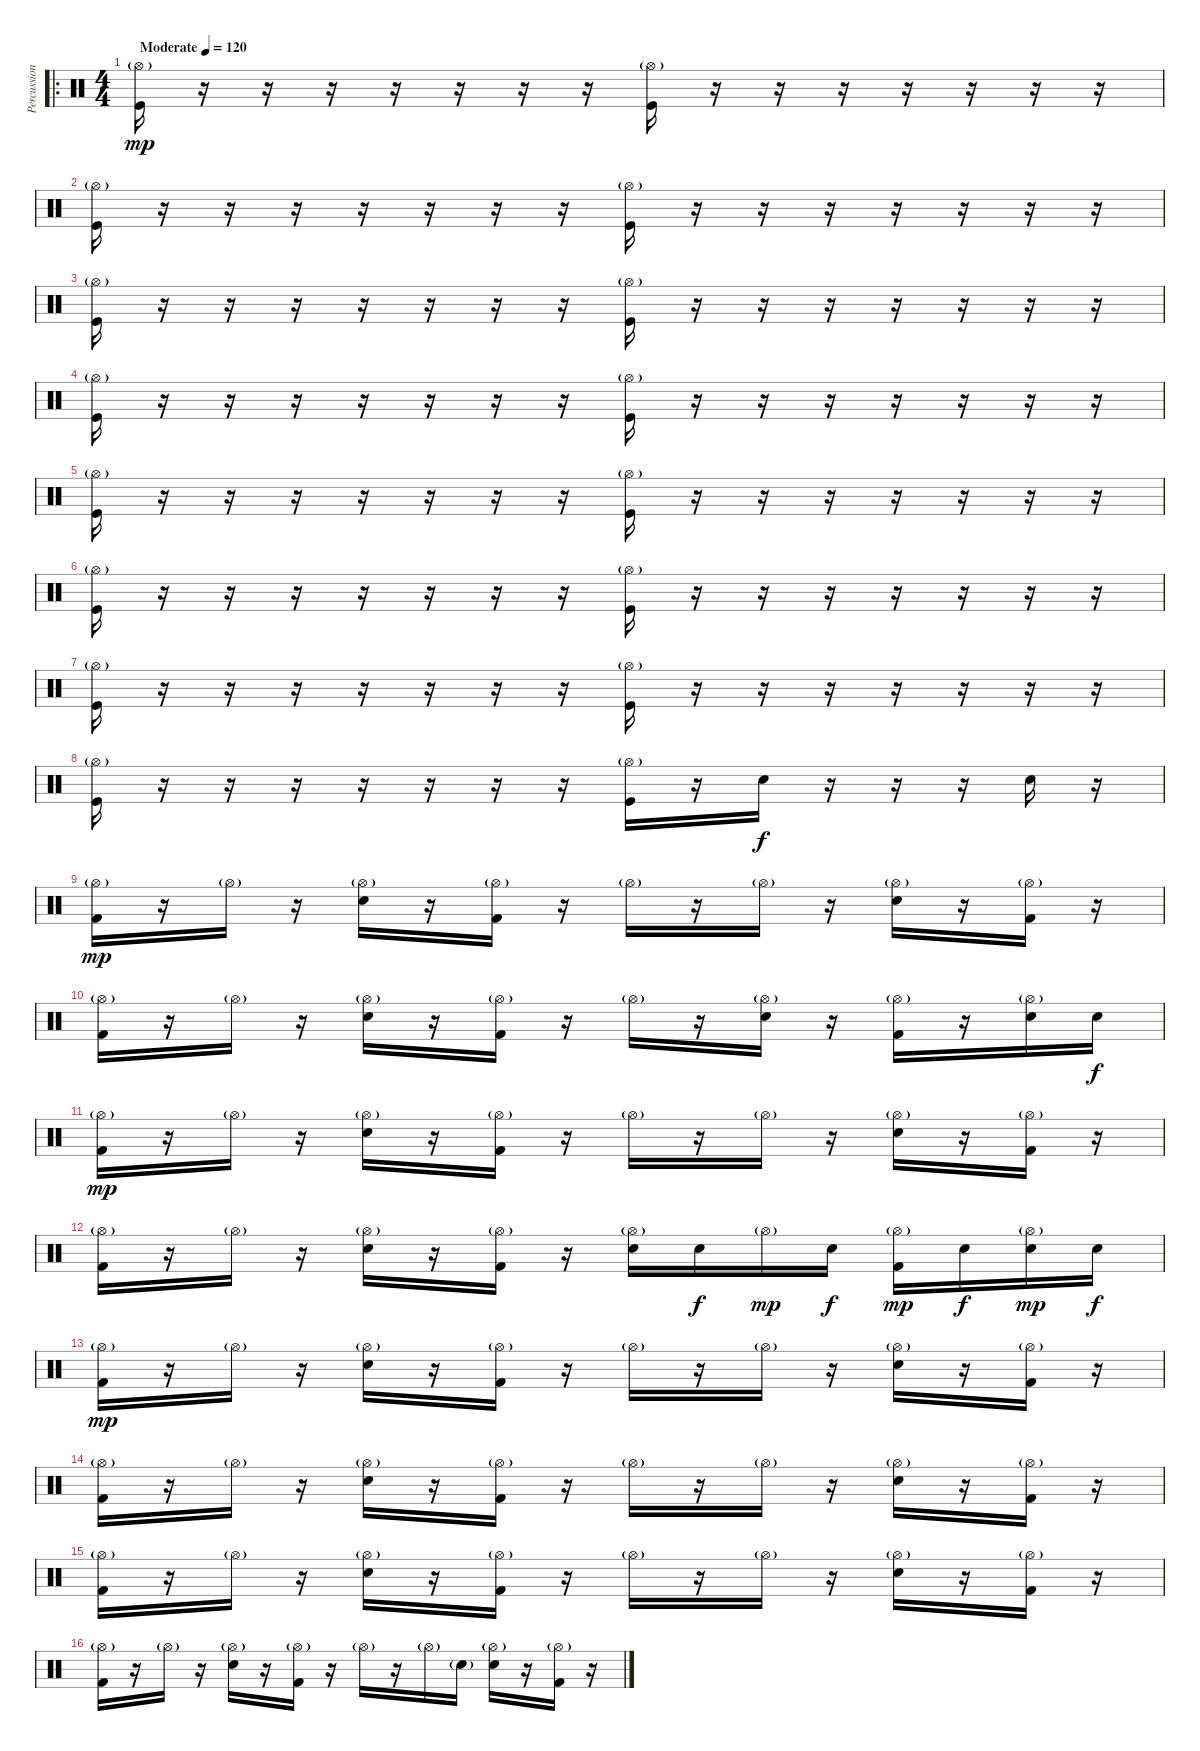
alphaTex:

\track ("Percussion (Drum Kit)" "Percussion") {instrument percussion}
\staff {score}
\articulation defaults
\ro
\ts (4 4)
\tempo (120 "Moderate")
\clef neutral
\ks c
("Hi-Hat (open)"{g} "Kick (hit)").16{dy mp} r.16 r.16 r.16 r.16 r.16 r.16 r.16 ("Hi-Hat (open)"{g} "Kick (hit)").16 r.16 r.16 r.16 r.16 r.16 r.16 r.16 |
("Hi-Hat (open)"{g} "Kick (hit)").16 r.16 r.16 r.16 r.16 r.16 r.16 r.16 ("Hi-Hat (open)"{g} "Kick (hit)").16 r.16 r.16 r.16 r.16 r.16 r.16 r.16 |
("Hi-Hat (open)"{g} "Kick (hit)").16 r.16 r.16 r.16 r.16 r.16 r.16 r.16 ("Hi-Hat (open)"{g} "Kick (hit)").16 r.16 r.16 r.16 r.16 r.16 r.16 r.16 |
("Hi-Hat (open)"{g} "Kick (hit)").16 r.16 r.16 r.16 r.16 r.16 r.16 r.16 ("Hi-Hat (open)"{g} "Kick (hit)").16 r.16 r.16 r.16 r.16 r.16 r.16 r.16 |
("Hi-Hat (open)"{g} "Kick (hit)").16 r.16 r.16 r.16 r.16 r.16 r.16 r.16 ("Hi-Hat (open)"{g} "Kick (hit)").16 r.16 r.16 r.16 r.16 r.16 r.16 r.16 |
("Hi-Hat (open)"{g} "Kick (hit)").16 r.16 r.16 r.16 r.16 r.16 r.16 r.16 ("Hi-Hat (open)"{g} "Kick (hit)").16 r.16 r.16 r.16 r.16 r.16 r.16 r.16 |
("Hi-Hat (open)"{g} "Kick (hit)").16 r.16 r.16 r.16 r.16 r.16 r.16 r.16 ("Hi-Hat (open)"{g} "Kick (hit)").16 r.16 r.16 r.16 r.16 r.16 r.16 r.16 |
("Hi-Hat (open)"{g} "Kick (hit)").16 r.16 r.16 r.16 r.16 r.16 r.16 r.16 ("Hi-Hat (open)"{g} "Kick (hit)").16 r.16 "Snare (hit) 2".16{dy f} r.16 r.16 r.16 "Snare (hit) 2".16 r.16 |
("Hi-Hat (open)"{g} "Kick (hit) 2").16{dy mp} r.16 "Hi-Hat (open)"{g}.16 r.16 ("Hi-Hat (open)"{g} "Snare (hit) 2").16 r.16 ("Hi-Hat (open)"{g} "Kick (hit) 2").16 r.16 "Hi-Hat (open)"{g}.16 r.16 "Hi-Hat (open)"{g}.16 r.16 ("Hi-Hat (open)"{g} "Snare (hit) 2").16 r.16 ("Hi-Hat (open)"{g} "Kick (hit) 2").16 r.16 |
("Hi-Hat (open)"{g} "Kick (hit) 2").16 r.16 "Hi-Hat (open)"{g}.16 r.16 ("Hi-Hat (open)"{g} "Snare (hit) 2").16 r.16 ("Hi-Hat (open)"{g} "Kick (hit) 2").16 r.16 "Hi-Hat (open)"{g}.16 r.16 ("Hi-Hat (open)"{g} "Snare (hit) 2").16 r.16 ("Hi-Hat (open)"{g} "Kick (hit) 2").16 r.16 ("Hi-Hat (open)"{g} "Snare (hit) 2").16 "Snare (hit) 2".16{dy f} |
("Hi-Hat (open)"{g} "Kick (hit) 2").16{dy mp} r.16 "Hi-Hat (open)"{g}.16 r.16 ("Hi-Hat (open)"{g} "Snare (hit) 2").16 r.16 ("Hi-Hat (open)"{g} "Kick (hit) 2").16 r.16 "Hi-Hat (open)"{g}.16 r.16 "Hi-Hat (open)"{g}.16 r.16 ("Hi-Hat (open)"{g} "Snare (hit) 2").16 r.16 ("Hi-Hat (open)"{g} "Kick (hit) 2").16 r.16 |
("Hi-Hat (open)"{g} "Kick (hit) 2").16 r.16 "Hi-Hat (open)"{g}.16 r.16 ("Hi-Hat (open)"{g} "Snare (hit) 2").16 r.16 ("Hi-Hat (open)"{g} "Kick (hit) 2").16 r.16 ("Hi-Hat (open)"{g} "Snare (hit) 2").16 "Snare (hit) 2".16{dy f} "Hi-Hat (open)"{g}.16{dy mp} "Snare (hit) 2".16{dy f} ("Hi-Hat (open)"{g} "Kick (hit) 2").16{dy mp} "Snare (hit) 2".16{dy f} ("Hi-Hat (open)"{g} "Snare (hit) 2").16{dy mp} "Snare (hit) 2".16{dy f} |
("Hi-Hat (open)"{g} "Kick (hit) 2").16{dy mp} r.16 "Hi-Hat (open)"{g}.16 r.16 ("Hi-Hat (open)"{g} "Snare (hit) 2").16 r.16 ("Hi-Hat (open)"{g} "Kick (hit) 2").16 r.16 "Hi-Hat (open)"{g}.16 r.16 "Hi-Hat (open)"{g}.16 r.16 ("Hi-Hat (open)"{g} "Snare (hit) 2").16 r.16 ("Hi-Hat (open)"{g} "Kick (hit) 2").16 r.16 |
("Hi-Hat (open)"{g} "Kick (hit) 2").16 r.16 "Hi-Hat (open)"{g}.16 r.16 ("Hi-Hat (open)"{g} "Snare (hit) 2").16 r.16 ("Hi-Hat (open)"{g} "Kick (hit) 2").16 r.16 "Hi-Hat (open)"{g}.16 r.16 "Hi-Hat (open)"{g}.16 r.16 ("Hi-Hat (open)"{g} "Snare (hit) 2").16 r.16 ("Hi-Hat (open)"{g} "Kick (hit) 2").16 r.16 |
("Hi-Hat (open)"{g} "Kick (hit) 2").16 r.16 "Hi-Hat (open)"{g}.16 r.16 ("Hi-Hat (open)"{g} "Snare (hit) 2").16 r.16 ("Hi-Hat (open)"{g} "Kick (hit) 2").16 r.16 "Hi-Hat (open)"{g}.16 r.16 "Hi-Hat (open)"{g}.16 r.16 ("Hi-Hat (open)"{g} "Snare (hit) 2").16 r.16 ("Hi-Hat (open)"{g} "Kick (hit) 2").16 r.16 |
("Hi-Hat (open)"{g} "Kick (hit) 2").16 r.16 "Hi-Hat (open)"{g}.16 r.16 ("Hi-Hat (open)"{g} "Snare (hit) 2").16 r.16 ("Hi-Hat (open)"{g} "Kick (hit) 2").16 r.16 "Hi-Hat (open)"{g}.16 r.16 "Hi-Hat (open)"{g}.16 "Snare (hit) 2"{g}.16 ("Hi-Hat (open)"{g} "Snare (hit) 2").16 r.16 ("Hi-Hat (open)"{g} "Kick (hit) 2").16 r.16
